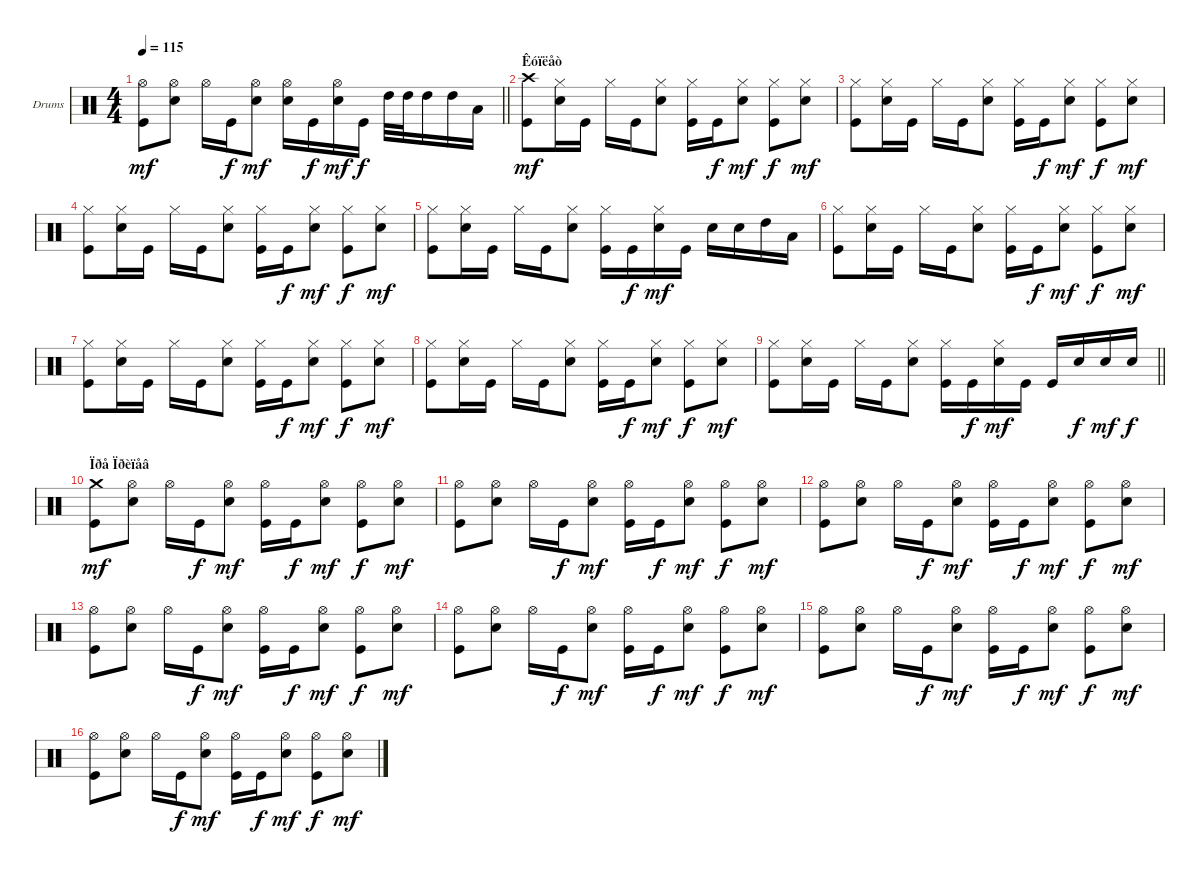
\bracketExtendMode groupsimilarinstruments
\firstSystemTrackNameOrientation horizontal
\otherSystemsTrackNameOrientation horizontal
\track ("Drumkit" "Drums") {instrument percussion}
\staff {score}
\articulation defaults
\ts (4 4)
\tempo 115
\clef neutral
\barLineRight lightlight
\ks c
("Hi-Hat (open)" "Kick (hit)").8{dy mf} ("Hi-Hat (open)" "Snare (hit) 2").8 "Hi-Hat (open)".16 "Kick (hit)".16{dy f} ("Hi-Hat (open)" "Snare (hit) 2").8{dy mf} ("Hi-Hat (open)" "Snare (hit) 2").16 "Kick (hit)".16{dy f} ("Hi-Hat (open)" "Snare (hit) 2").16{dy mf} "Kick (hit)".16{dy f} "High Tom (hit)".32 "High Tom (hit)".32 "High Tom (hit)".16 "High Tom (hit)".16 "Low Tom (hit)".16 |
\section ("" "Êóïëåò")
("Crash high (hit)" "Kick (hit)").8{dy mf} ("Hi-Hat (closed)" "Snare (hit) 2").16 "Kick (hit)".16 "Hi-Hat (closed)".16 "Kick (hit)".16 ("Hi-Hat (closed)" "Snare (hit) 2").8 ("Hi-Hat (closed)" "Kick (hit)").16 "Kick (hit)".16{dy f} ("Hi-Hat (closed)" "Snare (hit) 2").8{dy mf} ("Hi-Hat (closed)" "Kick (hit)").8{dy f} ("Hi-Hat (closed)" "Snare (hit) 2").8{dy mf} |
("Hi-Hat (closed)" "Kick (hit)").8 ("Hi-Hat (closed)" "Snare (hit) 2").16 "Kick (hit)".16 "Hi-Hat (closed)".16 "Kick (hit)".16 ("Hi-Hat (closed)" "Snare (hit) 2").8 ("Hi-Hat (closed)" "Kick (hit)").16 "Kick (hit)".16{dy f} ("Hi-Hat (closed)" "Snare (hit) 2").8{dy mf} ("Hi-Hat (closed)" "Kick (hit)").8{dy f} ("Hi-Hat (closed)" "Snare (hit) 2").8{dy mf} |
("Hi-Hat (closed)" "Kick (hit)").8 ("Hi-Hat (closed)" "Snare (hit) 2").16 "Kick (hit)".16 "Hi-Hat (closed)".16 "Kick (hit)".16 ("Hi-Hat (closed)" "Snare (hit) 2").8 ("Hi-Hat (closed)" "Kick (hit)").16 "Kick (hit)".16{dy f} ("Hi-Hat (closed)" "Snare (hit) 2").8{dy mf} ("Hi-Hat (closed)" "Kick (hit)").8{dy f} ("Hi-Hat (closed)" "Snare (hit) 2").8{dy mf} |
("Hi-Hat (closed)" "Kick (hit)").8 ("Hi-Hat (closed)" "Snare (hit) 2").16 "Kick (hit)".16 "Hi-Hat (closed)".16 "Kick (hit)".16 ("Hi-Hat (closed)" "Snare (hit) 2").8 ("Hi-Hat (closed)" "Kick (hit)").16 "Kick (hit)".16{dy f} ("Hi-Hat (closed)" "Snare (hit) 2").16{dy mf} "Kick (hit)".16 "Snare (hit) 2".16 "Snare (hit) 2".16 "High Tom (hit)".16 "Low Tom (hit)".16 |
("Hi-Hat (closed)" "Kick (hit)").8 ("Hi-Hat (closed)" "Snare (hit) 2").16 "Kick (hit)".16 "Hi-Hat (closed)".16 "Kick (hit)".16 ("Hi-Hat (closed)" "Snare (hit) 2").8 ("Hi-Hat (closed)" "Kick (hit)").16 "Kick (hit)".16{dy f} ("Hi-Hat (closed)" "Snare (hit) 2").8{dy mf} ("Hi-Hat (closed)" "Kick (hit)").8{dy f} ("Hi-Hat (closed)" "Snare (hit) 2").8{dy mf} |
("Hi-Hat (closed)" "Kick (hit)").8 ("Hi-Hat (closed)" "Snare (hit) 2").16 "Kick (hit)".16 "Hi-Hat (closed)".16 "Kick (hit)".16 ("Hi-Hat (closed)" "Snare (hit) 2").8 ("Hi-Hat (closed)" "Kick (hit)").16 "Kick (hit)".16{dy f} ("Hi-Hat (closed)" "Snare (hit) 2").8{dy mf} ("Hi-Hat (closed)" "Kick (hit)").8{dy f} ("Hi-Hat (closed)" "Snare (hit) 2").8{dy mf} |
("Hi-Hat (closed)" "Kick (hit)").8 ("Hi-Hat (closed)" "Snare (hit) 2").16 "Kick (hit)".16 "Hi-Hat (closed)".16 "Kick (hit)".16 ("Hi-Hat (closed)" "Snare (hit) 2").8 ("Hi-Hat (closed)" "Kick (hit)").16 "Kick (hit)".16{dy f} ("Hi-Hat (closed)" "Snare (hit) 2").8{dy mf} ("Hi-Hat (closed)" "Kick (hit)").8{dy f} ("Hi-Hat (closed)" "Snare (hit) 2").8{dy mf} |
\barLineRight lightlight
("Hi-Hat (closed)" "Kick (hit)").8 ("Hi-Hat (closed)" "Snare (hit) 2").16 "Kick (hit)".16 "Hi-Hat (closed)".16 "Kick (hit)".16 ("Hi-Hat (closed)" "Snare (hit) 2").8 ("Hi-Hat (closed)" "Kick (hit)").16 "Kick (hit)".16{dy f} ("Hi-Hat (closed)" "Snare (hit) 2").16{dy mf} "Kick (hit)".16 "Kick (hit)".16 "Snare (hit) 2".16{dy f} "Snare (hit) 2".16{dy mf} "Snare (hit) 2".16{dy f} |
\section ("" "Ïðå Ïðèïåâ")
("Crash medium (hit)" "Kick (hit)").8{dy mf} ("Hi-Hat (open)" "Snare (hit) 2").8 "Hi-Hat (open)".16 "Kick (hit)".16{dy f} ("Hi-Hat (open)" "Snare (hit) 2").8{dy mf} ("Hi-Hat (open)" "Kick (hit)").16 "Kick (hit)".16{dy f} ("Hi-Hat (open)" "Snare (hit) 2").8{dy mf} ("Kick (hit)" "Hi-Hat (open)").8{dy f} ("Hi-Hat (open)" "Snare (hit) 2").8{dy mf} |
("Hi-Hat (open)" "Kick (hit)").8 ("Hi-Hat (open)" "Snare (hit) 2").8 "Hi-Hat (open)".16 "Kick (hit)".16{dy f} ("Hi-Hat (open)" "Snare (hit) 2").8{dy mf} ("Hi-Hat (open)" "Kick (hit)").16 "Kick (hit)".16{dy f} ("Hi-Hat (open)" "Snare (hit) 2").8{dy mf} ("Kick (hit)" "Hi-Hat (open)").8{dy f} ("Hi-Hat (open)" "Snare (hit) 2").8{dy mf} |
("Hi-Hat (open)" "Kick (hit)").8 ("Hi-Hat (open)" "Snare (hit) 2").8 "Hi-Hat (open)".16 "Kick (hit)".16{dy f} ("Hi-Hat (open)" "Snare (hit) 2").8{dy mf} ("Hi-Hat (open)" "Kick (hit)").16 "Kick (hit)".16{dy f} ("Hi-Hat (open)" "Snare (hit) 2").8{dy mf} ("Kick (hit)" "Hi-Hat (open)").8{dy f} ("Hi-Hat (open)" "Snare (hit) 2").8{dy mf} |
("Hi-Hat (open)" "Kick (hit)").8 ("Hi-Hat (open)" "Snare (hit) 2").8 "Hi-Hat (open)".16 "Kick (hit)".16{dy f} ("Hi-Hat (open)" "Snare (hit) 2").8{dy mf} ("Hi-Hat (open)" "Kick (hit)").16 "Kick (hit)".16{dy f} ("Hi-Hat (open)" "Snare (hit) 2").8{dy mf} ("Kick (hit)" "Hi-Hat (open)").8{dy f} ("Hi-Hat (open)" "Snare (hit) 2").8{dy mf} |
("Hi-Hat (open)" "Kick (hit)").8 ("Hi-Hat (open)" "Snare (hit) 2").8 "Hi-Hat (open)".16 "Kick (hit)".16{dy f} ("Hi-Hat (open)" "Snare (hit) 2").8{dy mf} ("Hi-Hat (open)" "Kick (hit)").16 "Kick (hit)".16{dy f} ("Hi-Hat (open)" "Snare (hit) 2").8{dy mf} ("Kick (hit)" "Hi-Hat (open)").8{dy f} ("Hi-Hat (open)" "Snare (hit) 2").8{dy mf} |
("Hi-Hat (open)" "Kick (hit)").8 ("Hi-Hat (open)" "Snare (hit) 2").8 "Hi-Hat (open)".16 "Kick (hit)".16{dy f} ("Hi-Hat (open)" "Snare (hit) 2").8{dy mf} ("Hi-Hat (open)" "Kick (hit)").16 "Kick (hit)".16{dy f} ("Hi-Hat (open)" "Snare (hit) 2").8{dy mf} ("Kick (hit)" "Hi-Hat (open)").8{dy f} ("Hi-Hat (open)" "Snare (hit) 2").8{dy mf} |
("Hi-Hat (open)" "Kick (hit)").8 ("Hi-Hat (open)" "Snare (hit) 2").8 "Hi-Hat (open)".16 "Kick (hit)".16{dy f} ("Hi-Hat (open)" "Snare (hit) 2").8{dy mf} ("Hi-Hat (open)" "Kick (hit)").16 "Kick (hit)".16{dy f} ("Hi-Hat (open)" "Snare (hit) 2").8{dy mf} ("Kick (hit)" "Hi-Hat (open)").8{dy f} ("Hi-Hat (open)" "Snare (hit) 2").8{dy mf}
